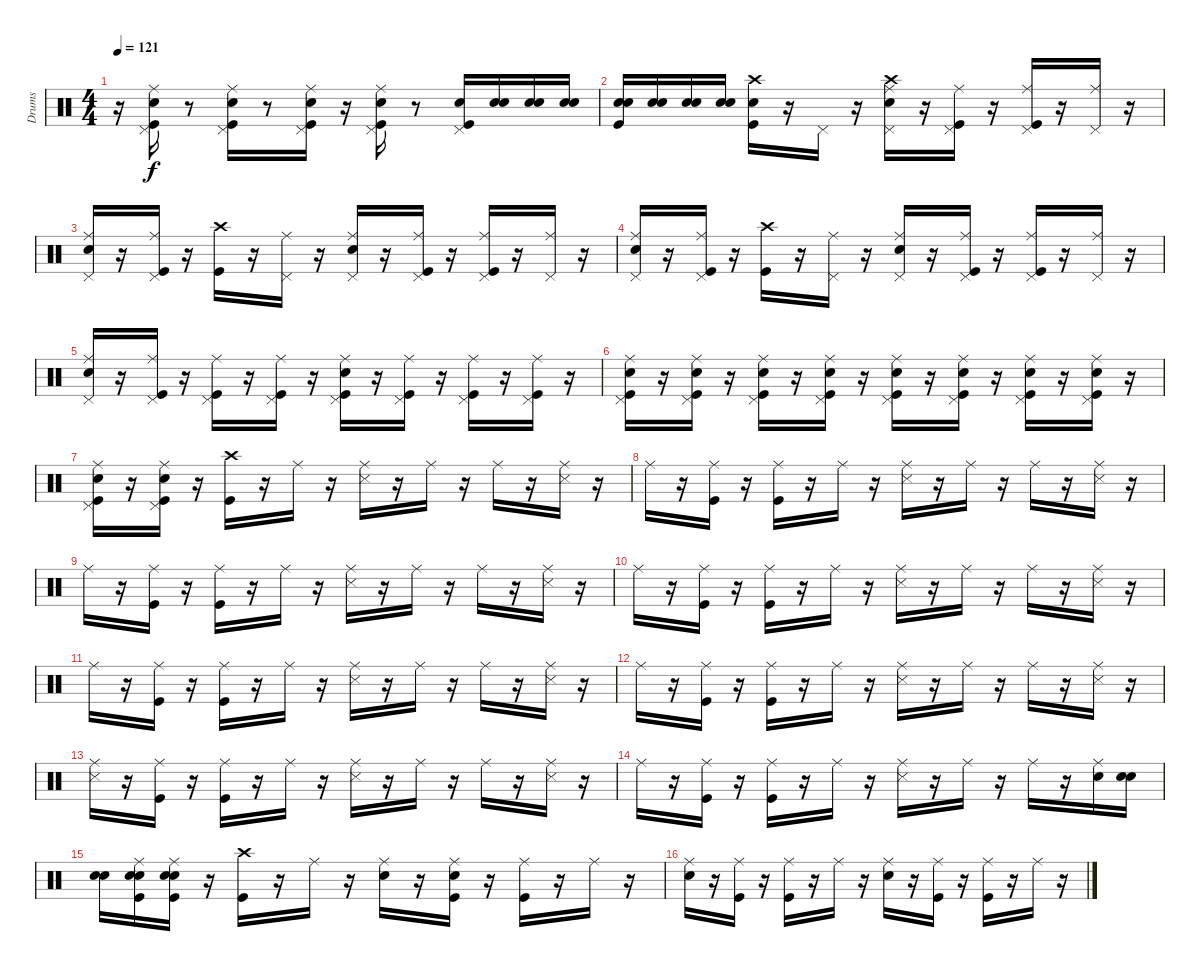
\track ("Drums" "Drums") {instrument percussion}
\staff {score}
\articulation defaults
\ts (4 4)
\tempo 121
\clef neutral
\ks c
r.16{dy f} ("Kick (hit)" "Pedal Hi-Hat (hit)" "Snare (hit) 2" "Ride (middle)").16 r.8 ("Snare (hit) 2" "Kick (hit)" "Ride (middle)" "Pedal Hi-Hat (hit)").16 r.8 ("Kick (hit)" "Snare (hit) 2" "Pedal Hi-Hat (hit)" "Ride (middle)").16 r.16 ("Kick (hit)" "Pedal Hi-Hat (hit)" "Snare (hit) 2" "Ride (middle)").16 r.8 ("Kick (hit)" "Pedal Hi-Hat (hit)" "Snare (hit) 2").16 ("Snare (hit)" "Snare (hit) 2").16 ("Snare (hit)" "Snare (hit) 2").16 ("Snare (hit)" "Snare (hit) 2").16 |
("Snare (hit)" "Kick (hit)" "Snare (hit) 2").16 ("Snare (hit)" "Snare (hit) 2").16 ("Snare (hit)" "Snare (hit) 2").16 ("Snare (hit)" "Snare (hit) 2").16 ("Snare (hit)" "Crash high (hit)" "Kick (hit)").16 r.16 "Pedal Hi-Hat (hit)".16 r.16 ("Snare (hit) 2" "Pedal Hi-Hat (hit)" "Crash high (hit)" "Ride (middle)").16 r.16 ("Kick (hit)" "Ride (middle)" "Pedal Hi-Hat (hit)").16 r.16 ("Kick (hit)" "Pedal Hi-Hat (hit)" "Ride (middle)").16 r.16 ("Pedal Hi-Hat (hit)" "Ride (middle)").16 r.16 |
("Snare (hit) 2" "Pedal Hi-Hat (hit)" "Ride (middle)").16 r.16 ("Kick (hit)" "Pedal Hi-Hat (hit)" "Ride (middle)").16 r.16 ("Crash high (hit)" "Kick (hit)").16 r.16 ("Pedal Hi-Hat (hit)" "Ride (middle)").16 r.16 ("Snare (hit) 2" "Ride (middle)" "Pedal Hi-Hat (hit)").16 r.16 ("Kick (hit)" "Ride (middle)" "Pedal Hi-Hat (hit)").16 r.16 ("Kick (hit)" "Pedal Hi-Hat (hit)" "Ride (middle)").16 r.16 ("Pedal Hi-Hat (hit)" "Ride (middle)").16 r.16 |
("Snare (hit) 2" "Pedal Hi-Hat (hit)" "Ride (middle)").16 r.16 ("Kick (hit)" "Pedal Hi-Hat (hit)" "Ride (middle)").16 r.16 ("Crash high (hit)" "Kick (hit)").16 r.16 ("Pedal Hi-Hat (hit)" "Ride (middle)").16 r.16 ("Snare (hit) 2" "Ride (middle)" "Pedal Hi-Hat (hit)").16 r.16 ("Kick (hit)" "Ride (middle)" "Pedal Hi-Hat (hit)").16 r.16 ("Kick (hit)" "Ride (middle)" "Pedal Hi-Hat (hit)").16 r.16 ("Pedal Hi-Hat (hit)" "Ride (middle)").16 r.16 |
("Snare (hit) 2" "Ride (middle)" "Pedal Hi-Hat (hit)").16 r.16 ("Pedal Hi-Hat (hit)" "Kick (hit)" "Ride (middle)").16 r.16 ("Pedal Hi-Hat (hit)" "Kick (hit)" "Ride (middle)").16 r.16 ("Kick (hit)" "Pedal Hi-Hat (hit)" "Ride (middle)").16 r.16 ("Kick (hit)" "Snare (hit) 2" "Ride (middle)" "Pedal Hi-Hat (hit)").16 r.16 ("Kick (hit)" "Ride (middle)" "Pedal Hi-Hat (hit)").16 r.16 ("Kick (hit)" "Ride (middle)" "Pedal Hi-Hat (hit)").16 r.16 ("Pedal Hi-Hat (hit)" "Kick (hit)" "Ride (middle)").16 r.16 |
("Kick (hit)" "Pedal Hi-Hat (hit)" "Snare (hit) 2" "Ride (middle)").16 r.16 ("Kick (hit)" "Pedal Hi-Hat (hit)" "Snare (hit) 2" "Ride (middle)").16 r.16 ("Snare (hit) 2" "Kick (hit)" "Pedal Hi-Hat (hit)" "Ride (middle)").16 r.16 ("Kick (hit)" "Snare (hit) 2" "Ride (middle)" "Pedal Hi-Hat (hit)").16 r.16 ("Kick (hit)" "Pedal Hi-Hat (hit)" "Snare (hit) 2" "Ride (middle)").16 r.16 ("Kick (hit)" "Pedal Hi-Hat (hit)" "Snare (hit) 2" "Ride (middle)").16 r.16 ("Kick (hit)" "Snare (hit) 2" "Ride (middle)" "Pedal Hi-Hat (hit)").16 r.16 ("Kick (hit)" "Pedal Hi-Hat (hit)" "Snare (hit) 2" "Ride (middle)").16 r.16 |
("Kick (hit)" "Pedal Hi-Hat (hit)" "Snare (hit) 2" "Ride (middle)").16 r.16 ("Kick (hit)" "Snare (hit) 2" "Ride (middle)" "Pedal Hi-Hat (hit)").16 r.16 ("Crash high (hit)" "Kick (hit)").16 r.16 "Ride (middle)".16 r.16 ("Ride (middle)" "Snare (side stick) 3").16 r.16 "Ride (middle)".16 r.16 "Ride (middle)".16 r.16 ("Ride (middle)" "Snare (side stick) 3").16 r.16 |
"Ride (middle)".16 r.16 ("Kick (hit)" "Ride (middle)").16 r.16 ("Ride (middle)" "Kick (hit)").16 r.16 "Ride (middle)".16 r.16 ("Ride (middle)" "Snare (side stick) 3").16 r.16 "Ride (middle)".16 r.16 "Ride (middle)".16 r.16 ("Ride (middle)" "Snare (side stick) 3").16 r.16 |
"Ride (middle)".16 r.16 ("Kick (hit)" "Ride (middle)").16 r.16 ("Ride (middle)" "Kick (hit)").16 r.16 "Ride (middle)".16 r.16 ("Ride (middle)" "Snare (side stick) 3").16 r.16 "Ride (middle)".16 r.16 "Ride (middle)".16 r.16 ("Ride (middle)" "Snare (side stick) 3").16 r.16 |
"Ride (middle)".16 r.16 ("Kick (hit)" "Ride (middle)").16 r.16 ("Ride (middle)" "Kick (hit)").16 r.16 "Ride (middle)".16 r.16 ("Ride (middle)" "Snare (side stick) 3").16 r.16 "Ride (middle)".16 r.16 "Ride (middle)".16 r.16 ("Ride (middle)" "Snare (side stick) 3").16 r.16 |
"Ride (middle)".16 r.16 ("Kick (hit)" "Ride (middle)").16 r.16 ("Ride (middle)" "Kick (hit)").16 r.16 "Ride (middle)".16 r.16 ("Ride (middle)" "Snare (side stick) 3").16 r.16 "Ride (middle)".16 r.16 "Ride (middle)".16 r.16 ("Snare (side stick) 3" "Ride (middle)").16 r.16 |
"Ride (middle)".16 r.16 ("Kick (hit)" "Ride (middle)").16 r.16 ("Ride (middle)" "Kick (hit)").16 r.16 "Ride (middle)".16 r.16 ("Ride (middle)" "Snare (side stick) 3").16 r.16 "Ride (middle)".16 r.16 "Ride (middle)".16 r.16 ("Ride (middle)" "Snare (side stick) 3").16 r.16 |
("Ride (middle)" "Snare (side stick) 3").16 r.16 ("Kick (hit)" "Ride (middle)").16 r.16 ("Ride (middle)" "Kick (hit)").16 r.16 "Ride (middle)".16 r.16 ("Ride (middle)" "Snare (side stick) 3").16 r.16 "Ride (middle)".16 r.16 "Ride (middle)".16 r.16 ("Ride (middle)" "Snare (side stick) 3").16 r.16 |
"Ride (middle)".16 r.16 ("Kick (hit)" "Ride (middle)").16 r.16 ("Ride (middle)" "Kick (hit)").16 r.16 "Ride (middle)".16 r.16 ("Ride (middle)" "Snare (side stick) 3").16 r.16 "Ride (middle)".16 r.16 "Ride (middle)".16 r.16 ("Snare (hit) 2" "Ride (middle)").16 ("Snare (hit)" "Snare (hit) 2").16 |
("Snare (hit)" "Snare (hit) 2").16 ("Snare (hit)" "Kick (hit)" "Ride (middle)" "Snare (hit) 2").16 ("Snare (hit)" "Kick (hit)" "Ride (middle)" "Snare (hit) 2").16 r.16 ("Crash high (hit)" "Kick (hit)").16 r.16 "Ride (middle)".16 r.16 ("Snare (hit) 2" "Ride (middle)").16 r.16 ("Kick (hit)" "Ride (middle)" "Snare (hit) 2").16 r.16 ("Kick (hit)" "Ride (middle)").16 r.16 "Ride (middle)".16 r.16 |
("Snare (hit) 2" "Ride (middle)").16 r.16 ("Ride (middle)" "Kick (hit)").16 r.16 ("Ride (middle)" "Kick (hit)").16 r.16 "Ride (middle)".16 r.16 ("Snare (hit) 2" "Ride (middle)").16 r.16 ("Kick (hit)" "Ride (middle)").16 r.16 ("Kick (hit)" "Ride (middle)").16 r.16 "Ride (middle)".16 r.16
